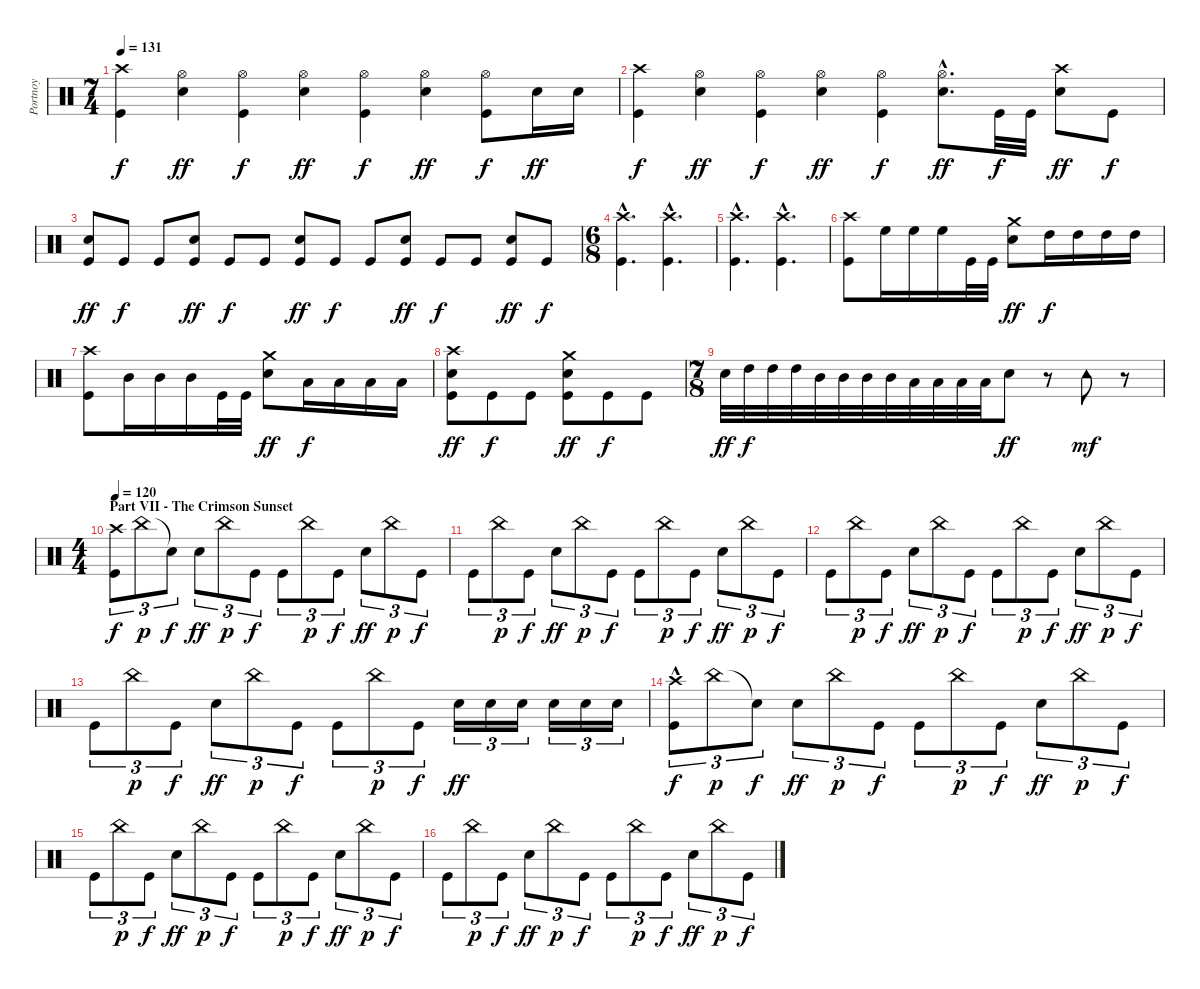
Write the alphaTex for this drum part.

\track ("Portnoy" "Portnoy") {instrument percussion}
\staff {score}
\articulation defaults
\ts (7 4)
\tempo 131
\clef neutral
\ks c
("Crash high (hit)" "Kick (hit)").4{dy f} ("Hi-Hat (open)" "Electric Snare (hit)").4{dy ff} ("Hi-Hat (open)" "Kick (hit)").4{dy f} ("Hi-Hat (open)" "Electric Snare (hit)").4{dy ff} ("Hi-Hat (open)" "Kick (hit)").4{dy f} ("Hi-Hat (open)" "Electric Snare (hit)").4{dy ff} ("Hi-Hat (open)" "Kick (hit)").8{dy f} "Electric Snare (hit)".16{dy ff} "Electric Snare (hit)".16 |
("Crash high (hit)" "Kick (hit)").4{dy f} ("Hi-Hat (open)" "Electric Snare (hit)").4{dy ff} ("Hi-Hat (open)" "Kick (hit)").4{dy f} ("Hi-Hat (open)" "Electric Snare (hit)").4{dy ff} ("Hi-Hat (open)" "Kick (hit)").4{dy f} ("Hi-Hat (open)"{hac} "Electric Snare (hit)"{hac}).8{d dy ff} "Kick (hit)".32{dy f} "Kick (hit)".32 ("Crash high (hit)" "Electric Snare (hit)").8{dy ff} "Kick (hit)".8{dy f} |
("Electric Snare (hit)" "Kick (hit)").8{dy ff} "Kick (hit)".8{dy f} "Kick (hit)".8 ("Electric Snare (hit)" "Kick (hit)").8{dy ff} "Kick (hit)".8{dy f} "Kick (hit)".8 ("Electric Snare (hit)" "Kick (hit)").8{dy ff} "Kick (hit)".8{dy f} "Kick (hit)".8 ("Electric Snare (hit)" "Kick (hit)").8{dy ff} "Kick (hit)".8{dy f} "Kick (hit)".8 ("Electric Snare (hit)" "Kick (hit)").8{dy ff} "Kick (hit)".8{dy f} |
\ts (6 8)
("Crash high (hit)"{hac} "Kick (hit)"{hac}).4{d} ("Crash high (hit)"{hac} "Kick (hit)"{hac}).4{d} |
("Crash high (hit)"{hac} "Kick (hit)"{hac}).4{d} ("Crash high (hit)"{hac} "Kick (hit)"{hac}).4{d} |
("Crash high (hit)" "Kick (hit)").8 "High Floor Tom (hit)".16 "High Floor Tom (hit)".16 "High Floor Tom (hit)".16 "Kick (hit)".32 "Kick (hit)".32 ("Crash medium (hit)" "Electric Snare (hit)").8{dy ff} "High Tom (hit)".16{dy f} "High Tom (hit)".16 "High Tom (hit)".16 "High Tom (hit)".16 |
("Crash high (hit)" "Kick (hit)").8 "Mid Tom (hit)".16 "Mid Tom (hit)".16 "Mid Tom (hit)".16 "Kick (hit)".32 "Kick (hit)".32 ("Crash medium (hit)" "Electric Snare (hit)").8{dy ff} "Low Tom (hit)".16{dy f} "Low Tom (hit)".16 "Low Tom (hit)".16 "Low Tom (hit)".16 |
("Crash high (hit)" "Electric Snare (hit)" "Kick (hit)").8{dy ff} "Kick (hit)".8{dy f} "Kick (hit)".8 ("Crash medium (hit)" "Electric Snare (hit)" "Kick (hit)").8{dy ff} "Kick (hit)".8{dy f} "Kick (hit)".8 |
\ts (7 8)
"Electric Snare (hit)".32{dy ff} "High Tom (hit)".32{dy f} "High Tom (hit)".32 "High Tom (hit)".32 "Mid Tom (hit)".32 "Mid Tom (hit)".32 "Mid Tom (hit)".32 "Mid Tom (hit)".32 "Low Tom (hit)".32 "Low Tom (hit)".32 "Low Tom (hit)".32 "Low Tom (hit)".32 "Electric Snare (hit)".8{dy ff} r.8 "Tambourine (hit)".8{dy mf} r.8 |
\ts (4 4)
\section ("" "Part VII - The Crimson Sunset")
\tempo 120
("Crash high (hit)" "Kick (hit)").8{tu (3 2) dy f} "China (hit)".8{tu (3 2) dy p} "Snare (hit)"{t}.8{tu (3 2) dy f} "Electric Snare (hit)".8{tu (3 2) dy ff} "China (hit)".8{tu (3 2) dy p} "Kick (hit)".8{tu (3 2) dy f} "Kick (hit)".8{tu (3 2)} "China (hit)".8{tu (3 2) dy p} "Kick (hit)".8{tu (3 2) dy f} "Electric Snare (hit)".8{tu (3 2) dy ff} "China (hit)".8{tu (3 2) dy p} "Kick (hit)".8{tu (3 2) dy f} |
"Kick (hit)".8{tu (3 2)} "China (hit)".8{tu (3 2) dy p} "Kick (hit)".8{tu (3 2) dy f} "Electric Snare (hit)".8{tu (3 2) dy ff} "China (hit)".8{tu (3 2) dy p} "Kick (hit)".8{tu (3 2) dy f} "Kick (hit)".8{tu (3 2)} "China (hit)".8{tu (3 2) dy p} "Kick (hit)".8{tu (3 2) dy f} "Electric Snare (hit)".8{tu (3 2) dy ff} "China (hit)".8{tu (3 2) dy p} "Kick (hit)".8{tu (3 2) dy f} |
"Kick (hit)".8{tu (3 2)} "China (hit)".8{tu (3 2) dy p} "Kick (hit)".8{tu (3 2) dy f} "Electric Snare (hit)".8{tu (3 2) dy ff} "China (hit)".8{tu (3 2) dy p} "Kick (hit)".8{tu (3 2) dy f} "Kick (hit)".8{tu (3 2)} "China (hit)".8{tu (3 2) dy p} "Kick (hit)".8{tu (3 2) dy f} "Electric Snare (hit)".8{tu (3 2) dy ff} "China (hit)".8{tu (3 2) dy p} "Kick (hit)".8{tu (3 2) dy f} |
"Kick (hit)".8{tu (3 2)} "China (hit)".8{tu (3 2) dy p} "Kick (hit)".8{tu (3 2) dy f} "Electric Snare (hit)".8{tu (3 2) dy ff} "China (hit)".8{tu (3 2) dy p} "Kick (hit)".8{tu (3 2) dy f} "Kick (hit)".8{tu (3 2)} "China (hit)".8{tu (3 2) dy p} "Kick (hit)".8{tu (3 2) dy f} "Electric Snare (hit)".16{tu (3 2) dy ff} "Electric Snare (hit)".16{tu (3 2)} "Electric Snare (hit)".16{tu (3 2)} "Electric Snare (hit)".16{tu (3 2)} "Electric Snare (hit)".16{tu (3 2)} "Electric Snare (hit)".16{tu (3 2)} |
("Crash high (hit)"{hac} "Kick (hit)").8{tu (3 2) dy f} "China (hit)".8{tu (3 2) dy p} "Snare (hit)"{t}.8{tu (3 2) dy f} "Electric Snare (hit)".8{tu (3 2) dy ff} "China (hit)".8{tu (3 2) dy p} "Kick (hit)".8{tu (3 2) dy f} "Kick (hit)".8{tu (3 2)} "China (hit)".8{tu (3 2) dy p} "Kick (hit)".8{tu (3 2) dy f} "Electric Snare (hit)".8{tu (3 2) dy ff} "China (hit)".8{tu (3 2) dy p} "Kick (hit)".8{tu (3 2) dy f} |
"Kick (hit)".8{tu (3 2)} "China (hit)".8{tu (3 2) dy p} "Kick (hit)".8{tu (3 2) dy f} "Electric Snare (hit)".8{tu (3 2) dy ff} "China (hit)".8{tu (3 2) dy p} "Kick (hit)".8{tu (3 2) dy f} "Kick (hit)".8{tu (3 2)} "China (hit)".8{tu (3 2) dy p} "Kick (hit)".8{tu (3 2) dy f} "Electric Snare (hit)".8{tu (3 2) dy ff} "China (hit)".8{tu (3 2) dy p} "Kick (hit)".8{tu (3 2) dy f} |
"Kick (hit)".8{tu (3 2)} "China (hit)".8{tu (3 2) dy p} "Kick (hit)".8{tu (3 2) dy f} "Electric Snare (hit)".8{tu (3 2) dy ff} "China (hit)".8{tu (3 2) dy p} "Kick (hit)".8{tu (3 2) dy f} "Kick (hit)".8{tu (3 2)} "China (hit)".8{tu (3 2) dy p} "Kick (hit)".8{tu (3 2) dy f} "Electric Snare (hit)".8{tu (3 2) dy ff} "China (hit)".8{tu (3 2) dy p} "Kick (hit)".8{tu (3 2) dy f}
